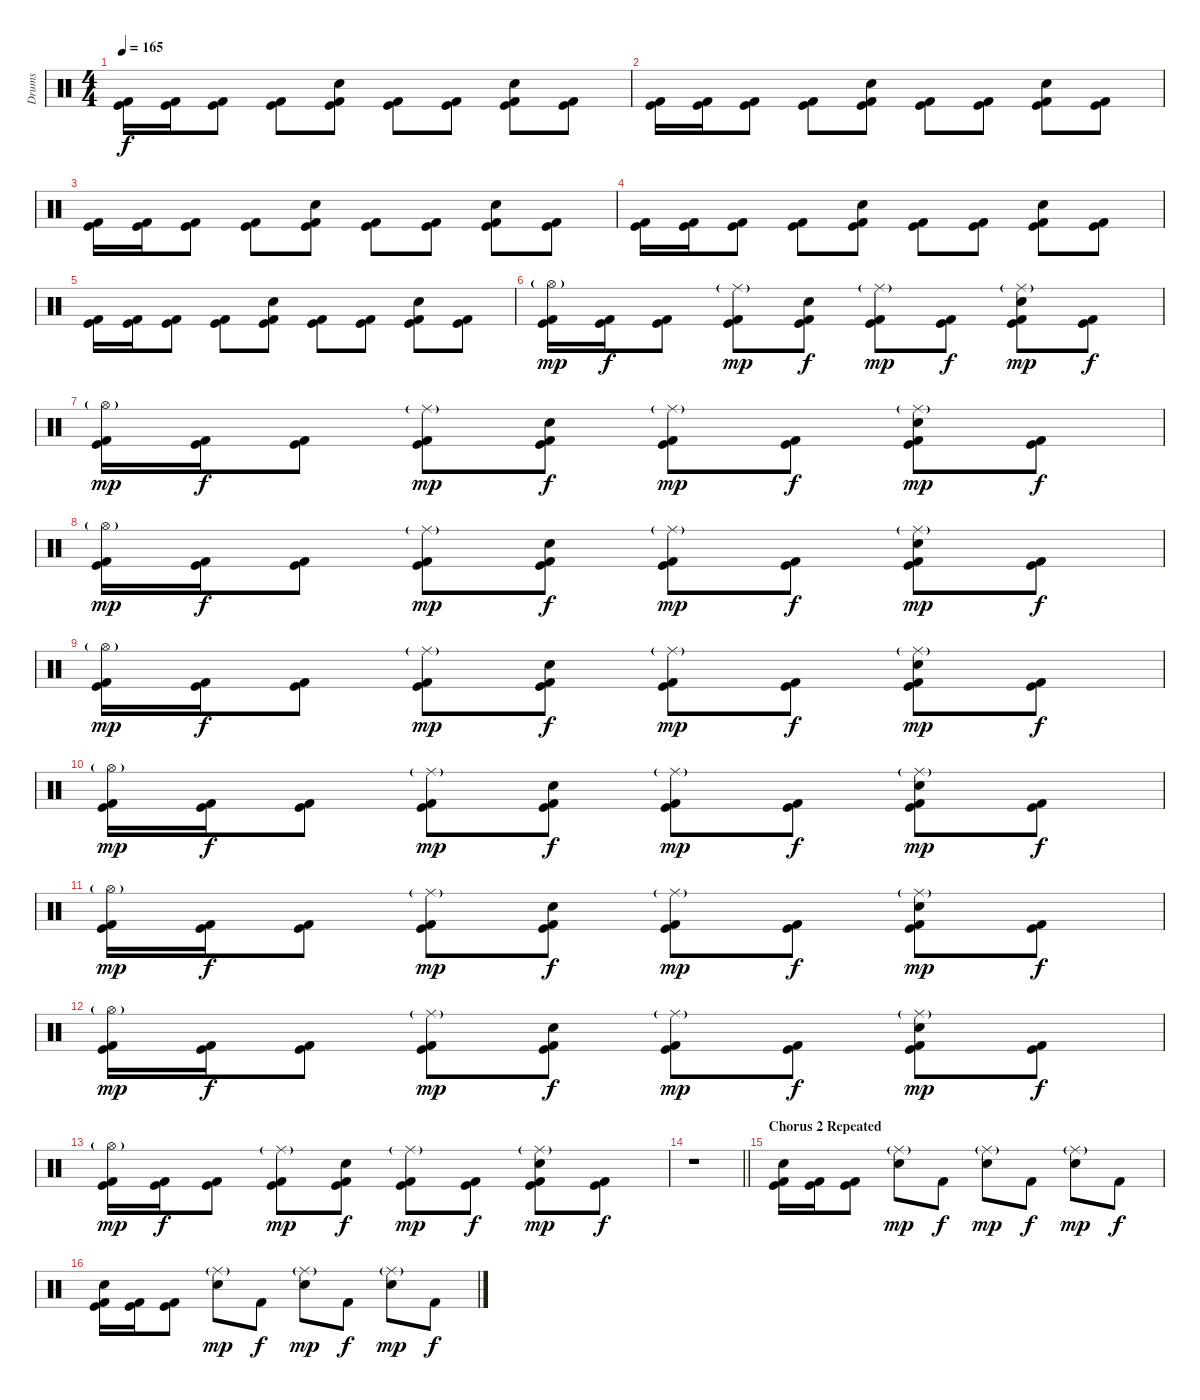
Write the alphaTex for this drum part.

\track ("Drums" "Drums") {instrument percussion}
\staff {score}
\articulation defaults
\ts (4 4)
\tempo 165
\clef neutral
\ks c
("Kick (hit)" "Kick (hit) 2").16{dy f beam Down} ("Kick (hit)" "Kick (hit) 2").16{beam Down} ("Kick (hit)" "Kick (hit) 2").8{beam Down} ("Kick (hit)" "Kick (hit) 2").8{beam Down} ("Snare (hit) 2" "Kick (hit)" "Kick (hit) 2").8{beam Down} ("Kick (hit)" "Kick (hit) 2").8{beam Down} ("Kick (hit)" "Kick (hit) 2").8{beam Down} ("Snare (hit) 2" "Kick (hit)" "Kick (hit) 2").8{beam Down} ("Kick (hit)" "Kick (hit) 2").8{beam Down} |
("Kick (hit)" "Kick (hit) 2").16{beam Down} ("Kick (hit)" "Kick (hit) 2").16{beam Down} ("Kick (hit)" "Kick (hit) 2").8{beam Down} ("Kick (hit)" "Kick (hit) 2").8{beam Down} ("Snare (hit) 2" "Kick (hit)" "Kick (hit) 2").8{beam Down} ("Kick (hit)" "Kick (hit) 2").8{beam Down} ("Kick (hit)" "Kick (hit) 2").8{beam Down} ("Snare (hit) 2" "Kick (hit)" "Kick (hit) 2").8{beam Down} ("Kick (hit)" "Kick (hit) 2").8{beam Down} |
("Kick (hit)" "Kick (hit) 2").16{beam Down} ("Kick (hit)" "Kick (hit) 2").16{beam Down} ("Kick (hit)" "Kick (hit) 2").8{beam Down} ("Kick (hit)" "Kick (hit) 2").8{beam Down} ("Snare (hit) 2" "Kick (hit)" "Kick (hit) 2").8{beam Down} ("Kick (hit)" "Kick (hit) 2").8{beam Down} ("Kick (hit)" "Kick (hit) 2").8{beam Down} ("Snare (hit) 2" "Kick (hit)" "Kick (hit) 2").8{beam Down} ("Kick (hit)" "Kick (hit) 2").8{beam Down} |
("Kick (hit)" "Kick (hit) 2").16{beam Down} ("Kick (hit)" "Kick (hit) 2").16{beam Down} ("Kick (hit)" "Kick (hit) 2").8{beam Down} ("Kick (hit)" "Kick (hit) 2").8{beam Down} ("Snare (hit) 2" "Kick (hit)" "Kick (hit) 2").8{beam Down} ("Kick (hit)" "Kick (hit) 2").8{beam Down} ("Kick (hit)" "Kick (hit) 2").8{beam Down} ("Snare (hit) 2" "Kick (hit)" "Kick (hit) 2").8{beam Down} ("Kick (hit)" "Kick (hit) 2").8{beam Down} |
("Kick (hit)" "Kick (hit) 2").16{beam Down} ("Kick (hit)" "Kick (hit) 2").16{beam Down} ("Kick (hit)" "Kick (hit) 2").8{beam Down} ("Kick (hit)" "Kick (hit) 2").8{beam Down} ("Snare (hit) 2" "Kick (hit)" "Kick (hit) 2").8{beam Down} ("Kick (hit)" "Kick (hit) 2").8{beam Down} ("Kick (hit)" "Kick (hit) 2").8{beam Down} ("Snare (hit) 2" "Kick (hit)" "Kick (hit) 2").8{beam Down} ("Kick (hit)" "Kick (hit) 2").8{beam Down} |
("Hi-Hat (open)"{g} "Kick (hit)" "Kick (hit) 2").16{dy mp beam Down} ("Kick (hit)" "Kick (hit) 2").16{dy f beam Down} ("Kick (hit)" "Kick (hit) 2").8{beam Down} ("Ride (middle)"{g} "Kick (hit)" "Kick (hit) 2").8{dy mp beam Down} ("Snare (hit) 2" "Kick (hit)" "Kick (hit) 2").8{dy f beam Down} ("Ride (middle)"{g} "Kick (hit)" "Kick (hit) 2").8{dy mp beam Down} ("Kick (hit)" "Kick (hit) 2").8{dy f beam Down} ("Ride (middle)"{g} "Snare (hit) 2" "Kick (hit)" "Kick (hit) 2").8{dy mp beam Down} ("Kick (hit)" "Kick (hit) 2").8{dy f beam Down} |
("Hi-Hat (open)"{g} "Kick (hit)" "Kick (hit) 2").16{dy mp beam Down} ("Kick (hit)" "Kick (hit) 2").16{dy f beam Down} ("Kick (hit)" "Kick (hit) 2").8{beam Down} ("Ride (middle)"{g} "Kick (hit)" "Kick (hit) 2").8{dy mp beam Down} ("Snare (hit) 2" "Kick (hit)" "Kick (hit) 2").8{dy f beam Down} ("Ride (middle)"{g} "Kick (hit)" "Kick (hit) 2").8{dy mp beam Down} ("Kick (hit)" "Kick (hit) 2").8{dy f beam Down} ("Ride (middle)"{g} "Snare (hit) 2" "Kick (hit)" "Kick (hit) 2").8{dy mp beam Down} ("Kick (hit)" "Kick (hit) 2").8{dy f beam Down} |
("Hi-Hat (open)"{g} "Kick (hit)" "Kick (hit) 2").16{dy mp beam Down} ("Kick (hit)" "Kick (hit) 2").16{dy f beam Down} ("Kick (hit)" "Kick (hit) 2").8{beam Down} ("Ride (middle)"{g} "Kick (hit)" "Kick (hit) 2").8{dy mp beam Down} ("Snare (hit) 2" "Kick (hit)" "Kick (hit) 2").8{dy f beam Down} ("Ride (middle)"{g} "Kick (hit)" "Kick (hit) 2").8{dy mp beam Down} ("Kick (hit)" "Kick (hit) 2").8{dy f beam Down} ("Ride (middle)"{g} "Snare (hit) 2" "Kick (hit)" "Kick (hit) 2").8{dy mp beam Down} ("Kick (hit)" "Kick (hit) 2").8{dy f beam Down} |
("Hi-Hat (open)"{g} "Kick (hit)" "Kick (hit) 2").16{dy mp beam Down} ("Kick (hit)" "Kick (hit) 2").16{dy f beam Down} ("Kick (hit)" "Kick (hit) 2").8{beam Down} ("Ride (middle)"{g} "Kick (hit)" "Kick (hit) 2").8{dy mp beam Down} ("Snare (hit) 2" "Kick (hit)" "Kick (hit) 2").8{dy f beam Down} ("Ride (middle)"{g} "Kick (hit)" "Kick (hit) 2").8{dy mp beam Down} ("Kick (hit)" "Kick (hit) 2").8{dy f beam Down} ("Ride (middle)"{g} "Snare (hit) 2" "Kick (hit)" "Kick (hit) 2").8{dy mp beam Down} ("Kick (hit)" "Kick (hit) 2").8{dy f beam Down} |
("Hi-Hat (open)"{g} "Kick (hit)" "Kick (hit) 2").16{dy mp beam Down} ("Kick (hit)" "Kick (hit) 2").16{dy f beam Down} ("Kick (hit)" "Kick (hit) 2").8{beam Down} ("Ride (middle)"{g} "Kick (hit)" "Kick (hit) 2").8{dy mp beam Down} ("Snare (hit) 2" "Kick (hit)" "Kick (hit) 2").8{dy f beam Down} ("Ride (middle)"{g} "Kick (hit)" "Kick (hit) 2").8{dy mp beam Down} ("Kick (hit)" "Kick (hit) 2").8{dy f beam Down} ("Ride (middle)"{g} "Snare (hit) 2" "Kick (hit)" "Kick (hit) 2").8{dy mp beam Down} ("Kick (hit)" "Kick (hit) 2").8{dy f beam Down} |
("Hi-Hat (open)"{g} "Kick (hit)" "Kick (hit) 2").16{dy mp beam Down} ("Kick (hit)" "Kick (hit) 2").16{dy f beam Down} ("Kick (hit)" "Kick (hit) 2").8{beam Down} ("Ride (middle)"{g} "Kick (hit)" "Kick (hit) 2").8{dy mp beam Down} ("Snare (hit) 2" "Kick (hit)" "Kick (hit) 2").8{dy f beam Down} ("Ride (middle)"{g} "Kick (hit)" "Kick (hit) 2").8{dy mp beam Down} ("Kick (hit)" "Kick (hit) 2").8{dy f beam Down} ("Ride (middle)"{g} "Snare (hit) 2" "Kick (hit)" "Kick (hit) 2").8{dy mp beam Down} ("Kick (hit)" "Kick (hit) 2").8{dy f beam Down} |
("Hi-Hat (open)"{g} "Kick (hit)" "Kick (hit) 2").16{dy mp beam Down} ("Kick (hit)" "Kick (hit) 2").16{dy f beam Down} ("Kick (hit)" "Kick (hit) 2").8{beam Down} ("Ride (middle)"{g} "Kick (hit)" "Kick (hit) 2").8{dy mp beam Down} ("Snare (hit) 2" "Kick (hit)" "Kick (hit) 2").8{dy f beam Down} ("Ride (middle)"{g} "Kick (hit)" "Kick (hit) 2").8{dy mp beam Down} ("Kick (hit)" "Kick (hit) 2").8{dy f beam Down} ("Ride (middle)"{g} "Snare (hit) 2" "Kick (hit)" "Kick (hit) 2").8{dy mp beam Down} ("Kick (hit)" "Kick (hit) 2").8{dy f beam Down} |
("Hi-Hat (open)"{g} "Kick (hit)" "Kick (hit) 2").16{dy mp beam Down} ("Kick (hit)" "Kick (hit) 2").16{dy f beam Down} ("Kick (hit)" "Kick (hit) 2").8{beam Down} ("Ride (middle)"{g} "Kick (hit)" "Kick (hit) 2").8{dy mp beam Down} ("Snare (hit) 2" "Kick (hit)" "Kick (hit) 2").8{dy f beam Down} ("Ride (middle)"{g} "Kick (hit)" "Kick (hit) 2").8{dy mp beam Down} ("Kick (hit)" "Kick (hit) 2").8{dy f beam Down} ("Ride (middle)"{g} "Snare (hit) 2" "Kick (hit)" "Kick (hit) 2").8{dy mp beam Down} ("Kick (hit)" "Kick (hit) 2").8{dy f beam Down} |
\barLineRight lightlight
r.1 |
\section ("" "Chorus 2 Repeated")
("Snare (hit) 2" "Kick (hit)" "Kick (hit) 2").16{beam Down} ("Kick (hit)" "Kick (hit) 2").16{beam Down} ("Kick (hit)" "Kick (hit) 2").8{beam Down} ("Ride (middle)"{g} "Snare (hit) 2").8{dy mp} "Kick (hit) 2".8{dy f} ("Ride (middle)"{g} "Snare (hit) 2").8{dy mp} "Kick (hit) 2".8{dy f} ("Ride (middle)"{g} "Snare (hit) 2").8{dy mp} "Kick (hit) 2".8{dy f} |
("Snare (hit) 2" "Kick (hit)" "Kick (hit) 2").16{beam Down} ("Kick (hit)" "Kick (hit) 2").16{beam Down} ("Kick (hit)" "Kick (hit) 2").8{beam Down} ("Ride (middle)"{g} "Snare (hit) 2").8{dy mp} "Kick (hit) 2".8{dy f} ("Ride (middle)"{g} "Snare (hit) 2").8{dy mp} "Kick (hit) 2".8{dy f} ("Ride (middle)"{g} "Snare (hit) 2").8{dy mp} "Kick (hit) 2".8{dy f}
